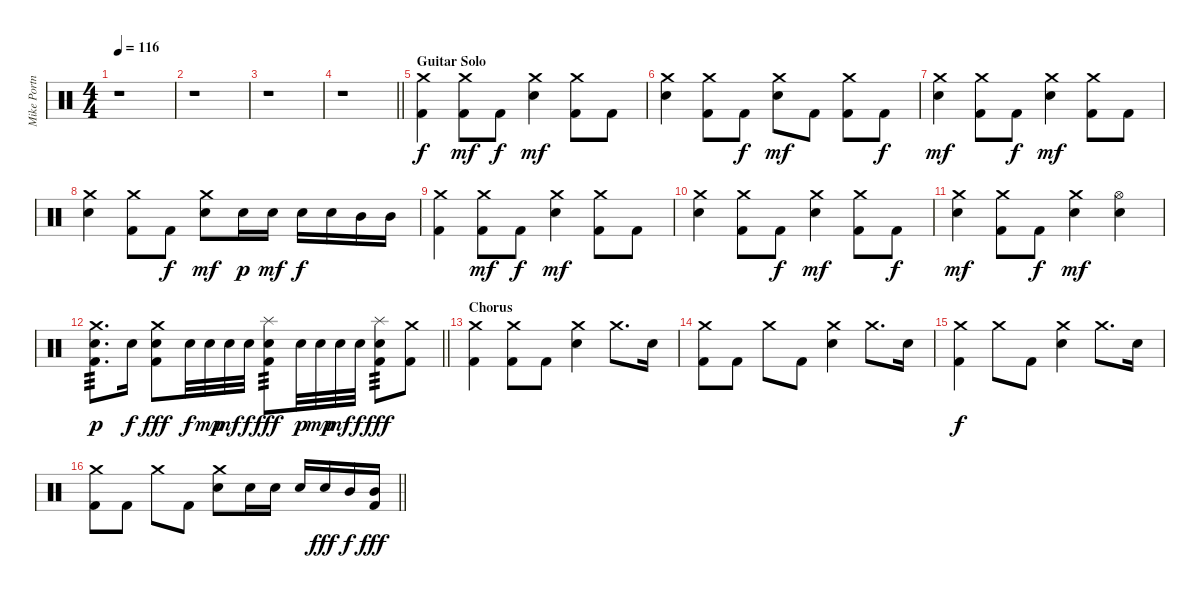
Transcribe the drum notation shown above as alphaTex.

\track ("Mike Portnoy [Drums]" "Mike Portn") {instrument percussion}
\staff {score}
\articulation defaults
\ts (4 4)
\tempo 116
\clef neutral
\ks c
r.1{dy mf} |
r.1 |
r.1 |
\barLineRight lightlight
r.1 |
\section ("" "Guitar Solo")
("Crash medium (hit)" "Kick (hit) 2").4{dy f} ("Crash medium (hit)" "Kick (hit) 2").8{dy mf} "Kick (hit) 2".8{dy f} ("Crash medium (hit)" "Electric Snare (hit)").4{dy mf} ("Crash medium (hit)" "Kick (hit) 2").8 "Kick (hit) 2".8 |
("Crash medium (hit)" "Electric Snare (hit)").4 ("Crash medium (hit)" "Kick (hit) 2").8 "Kick (hit) 2".8{dy f} ("Crash medium (hit)" "Electric Snare (hit)").8{dy mf} "Kick (hit) 2".8 ("Crash medium (hit)" "Kick (hit) 2").8 "Kick (hit) 2".8{dy f} |
("Crash medium (hit)" "Electric Snare (hit)").4{dy mf} ("Crash medium (hit)" "Kick (hit) 2").8 "Kick (hit) 2".8{dy f} ("Crash medium (hit)" "Electric Snare (hit)").4{dy mf} ("Crash medium (hit)" "Kick (hit) 2").8 "Kick (hit) 2".8 |
("Crash medium (hit)" "Electric Snare (hit)").4 ("Crash medium (hit)" "Kick (hit) 2").8 "Kick (hit) 2".8{dy f} ("Crash medium (hit)" "Electric Snare (hit)").8{dy mf} "Electric Snare (hit)".16{dy p} "Electric Snare (hit)".16{dy mf} "Electric Snare (hit)".16{dy f} "Electric Snare (hit)".16 "Mid Tom (hit)".16 "Mid Tom (hit)".16 |
("Crash medium (hit)" "Kick (hit) 2").4 ("Crash medium (hit)" "Kick (hit) 2").8{dy mf} "Kick (hit) 2".8{dy f} ("Crash medium (hit)" "Electric Snare (hit)").4{dy mf} ("Crash medium (hit)" "Kick (hit) 2").8 "Kick (hit) 2".8 |
("Crash medium (hit)" "Electric Snare (hit)").4 ("Crash medium (hit)" "Kick (hit) 2").8 "Kick (hit) 2".8{dy f} ("Crash medium (hit)" "Electric Snare (hit)").4{dy mf} ("Crash medium (hit)" "Kick (hit) 2").8 "Kick (hit) 2".8{dy f} |
("Crash medium (hit)" "Electric Snare (hit)").4{dy mf} ("Crash medium (hit)" "Kick (hit) 2").8 "Kick (hit) 2".8{dy f} ("Crash medium (hit)" "Electric Snare (hit)").4{dy mf} ("Hi-Hat (open)" "Electric Snare (hit)").4 |
\barLineRight lightlight
("Crash medium (hit)" "Electric Snare (hit)" "Kick (hit) 2").8{d tp 3 dy p} "Electric Snare (hit)".16{dy f} ("Crash medium (hit)" "Electric Snare (hit)" "Kick (hit) 2").8{dy fff} "Electric Snare (hit)".32{dy f} "Electric Snare (hit)".32{dy mp} "Electric Snare (hit)".32{dy mf} "Electric Snare (hit)".32{dy f} ("Splash (hit)" "Electric Snare (hit)" "Kick (hit) 2").8{tp 3 dy fff} "Electric Snare (hit)".32{dy p} "Electric Snare (hit)".32{dy mp} "Electric Snare (hit)".32{dy mf} "Electric Snare (hit)".32{dy f} ("Splash (hit)" "Electric Snare (hit)" "Kick (hit) 2").8{tp 3 dy fff} ("Crash medium (hit)" "Kick (hit) 2").8 |
\section ("" "Chorus")
("Crash medium (hit)" "Kick (hit) 2").4 ("Crash medium (hit)" "Kick (hit) 2").8 "Kick (hit) 2".8 ("Crash medium (hit)" "Electric Snare (hit)").4 "Crash medium (hit)".8{d} "Electric Snare (hit)".16 |
("Crash medium (hit)" "Kick (hit) 2").8 "Kick (hit) 2".8 "Crash medium (hit)".8 "Kick (hit) 2".8 ("Crash medium (hit)" "Electric Snare (hit)").4 "Crash medium (hit)".8{d} "Electric Snare (hit)".16 |
("Crash medium (hit)" "Kick (hit) 2").4{dy f} "Crash medium (hit)".8 "Kick (hit) 2".8 ("Crash medium (hit)" "Electric Snare (hit)").4 "Crash medium (hit)".8{d} "Snare (hit) 2".16 |
\barLineRight lightlight
("Crash medium (hit)" "Kick (hit) 2").8 "Kick (hit) 2".8 "Crash medium (hit)".8 "Kick (hit) 2".8 ("Crash medium (hit)" "Electric Snare (hit)").8 "Electric Snare (hit)".16 "Electric Snare (hit)".16 "Electric Snare (hit)".16 "Electric Snare (hit)".16{dy fff} "Mid Tom (hit)".16{dy f} ("Mid Tom (hit)" "Kick (hit) 2").16{dy fff}
